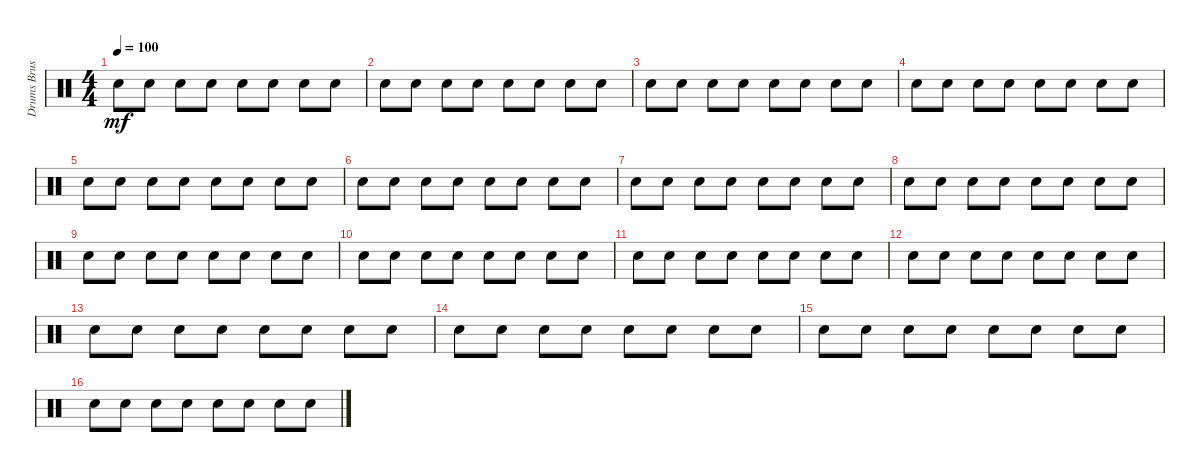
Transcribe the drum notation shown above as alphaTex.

\track ("Drums Brush Set" "Drums Brus") {instrument percussion}
\staff {score}
\articulation defaults
\ts (4 4)
\tempo 100
\clef neutral
\ks c "Snare (hit) 2".8{dy mf} "Snare (hit) 2".8 "Hand Clap (hit)".8 "Snare (hit) 2".8 "Snare (hit) 2".8 "Snare (hit) 2".8 "Hand Clap (hit)".8 "Snare (hit) 2".8
|
"Snare (hit) 2".8 "Snare (hit) 2".8 "Hand Clap (hit)".8 "Snare (hit) 2".8 "Snare (hit) 2".8 "Snare (hit) 2".8 "Hand Clap (hit)".8 "Snare (hit) 2".8 |
"Snare (hit) 2".8 "Snare (hit) 2".8 "Hand Clap (hit)".8 "Snare (hit) 2".8 "Snare (hit) 2".8 "Snare (hit) 2".8 "Hand Clap (hit)".8 "Snare (hit) 2".8 |
"Snare (hit) 2".8 "Snare (hit) 2".8 "Hand Clap (hit)".8 "Snare (hit) 2".8 "Snare (hit) 2".8 "Snare (hit) 2".8 "Hand Clap (hit)".8 "Snare (hit) 2".8 |
"Snare (hit) 2".8 "Snare (hit) 2".8 "Hand Clap (hit)".8 "Snare (hit) 2".8 "Snare (hit) 2".8 "Snare (hit) 2".8 "Hand Clap (hit)".8 "Snare (hit) 2".8 |
"Snare (hit) 2".8 "Snare (hit) 2".8 "Hand Clap (hit)".8 "Snare (hit) 2".8 "Snare (hit) 2".8 "Snare (hit) 2".8 "Hand Clap (hit)".8 "Snare (hit) 2".8 |
"Snare (hit) 2".8 "Snare (hit) 2".8 "Hand Clap (hit)".8 "Snare (hit) 2".8 "Snare (hit) 2".8 "Snare (hit) 2".8 "Hand Clap (hit)".8 "Snare (hit) 2".8 |
"Snare (hit) 2".8 "Snare (hit) 2".8 "Hand Clap (hit)".8 "Snare (hit) 2".8 "Snare (hit) 2".8 "Snare (hit) 2".8 "Hand Clap (hit)".8 "Snare (hit) 2".8 |
"Snare (hit) 2".8 "Snare (hit) 2".8 "Hand Clap (hit)".8 "Snare (hit) 2".8 "Snare (hit) 2".8 "Snare (hit) 2".8 "Hand Clap (hit)".8 "Snare (hit) 2".8 |
"Snare (hit) 2".8 "Snare (hit) 2".8 "Hand Clap (hit)".8 "Snare (hit) 2".8 "Snare (hit) 2".8 "Snare (hit) 2".8 "Hand Clap (hit)".8 "Snare (hit) 2".8 |
"Snare (hit) 2".8 "Snare (hit) 2".8 "Hand Clap (hit)".8 "Snare (hit) 2".8 "Snare (hit) 2".8 "Snare (hit) 2".8 "Hand Clap (hit)".8 "Snare (hit) 2".8 |
"Snare (hit) 2".8 "Snare (hit) 2".8 "Hand Clap (hit)".8 "Hand Clap (hit)".8 "Snare (hit) 2".8 "Snare (hit) 2".8 "Hand Clap (hit)".8 "Snare (hit) 2".8 |
"Snare (hit) 2".8 "Snare (hit) 2".8 "Hand Clap (hit)".8 "Hand Clap (hit)".8 "Snare (hit) 2".8 "Snare (hit) 2".8 "Hand Clap (hit)".8 "Snare (hit) 2".8 |
"Snare (hit) 2".8 "Snare (hit) 2".8 "Hand Clap (hit)".8 "Hand Clap (hit)".8 "Snare (hit) 2".8 "Snare (hit) 2".8 "Hand Clap (hit)".8 "Snare (hit) 2".8 |
"Snare (hit) 2".8 "Snare (hit) 2".8 "Hand Clap (hit)".8 "Hand Clap (hit)".8 "Snare (hit) 2".8 "Snare (hit) 2".8 "Hand Clap (hit)".8 "Snare (hit) 2".8 |
"Snare (hit) 2".8 "Snare (hit) 2".8 "Hand Clap (hit)".8 "Hand Clap (hit)".8 "Snare (hit) 2".8 "Snare (hit) 2".8 "Hand Clap (hit)".8 "Snare (hit) 2".8
